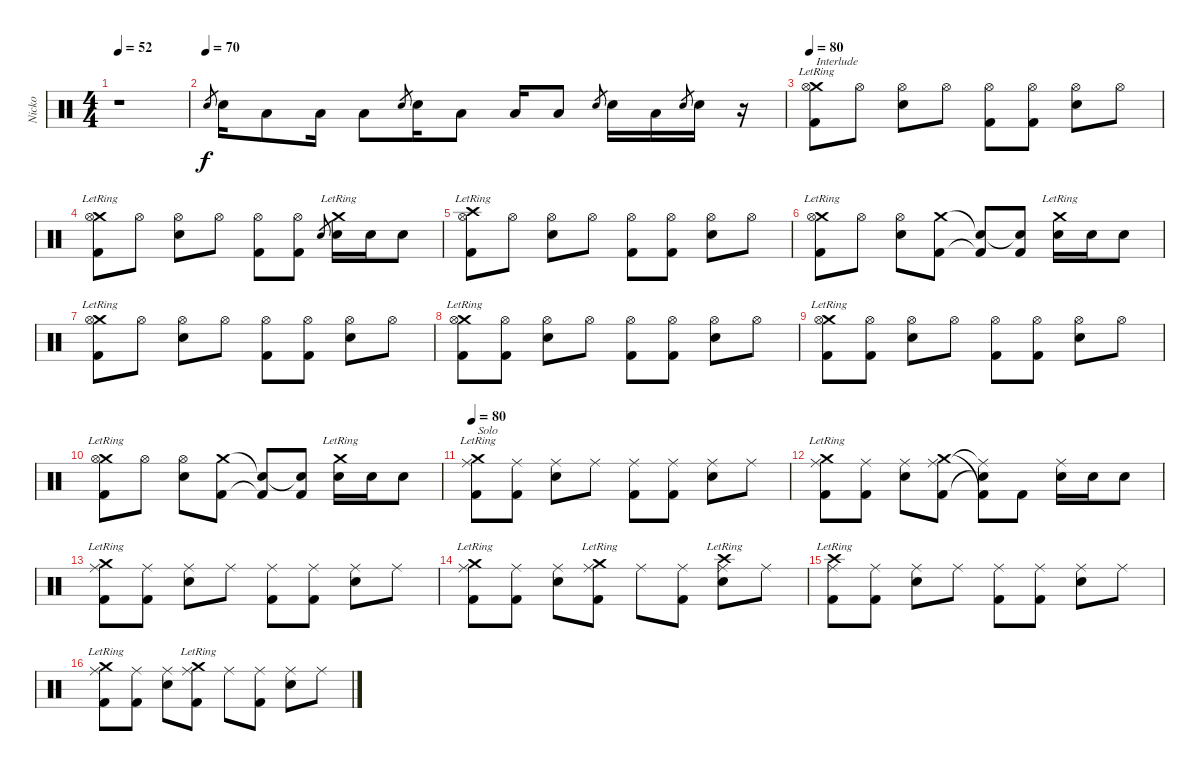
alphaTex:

\track ("Nicko" "Nicko") {instrument percussion}
\staff {score}
\articulation defaults
\ts (4 4)
\tempo 52
\clef neutral
\ks c
r.1{dy f} |
\tempo (70)
"Electric Snare (hit)".8{gr} "Electric Snare (hit)".16 "Low Floor Tom (hit)".8 "Low Floor Tom (hit)".16 "Low Floor Tom (hit)".8 "Electric Snare (hit)".8{gr} "Electric Snare (hit)".16 "Low Floor Tom (hit)".8 "Low Floor Tom (hit)".16 "Low Floor Tom (hit)".8 "Electric Snare (hit)".8{gr} "Electric Snare (hit)".16 "Low Floor Tom (hit)".16 "Electric Snare (hit)".8{gr} "Electric Snare (hit)".16 r.16 |
\tempo 78
\tempo 75
\tempo 80
("Crash medium (hit)"{lr} "Hi-Hat (open)" "Kick (hit) 2").8{txt "Interlude"} "Hi-Hat (open)".8 ("Electric Snare (hit)" "Hi-Hat (open)").8 "Hi-Hat (open)".8 ("Hi-Hat (open)" "Kick (hit) 2").8 ("Hi-Hat (open)" "Kick (hit) 2").8 ("Hi-Hat (open)" "Electric Snare (hit)").8 "Hi-Hat (open)".8 |
("Crash medium (hit)"{lr} "Hi-Hat (open)" "Kick (hit) 2").8 "Hi-Hat (open)".8 ("Electric Snare (hit)" "Hi-Hat (open)").8 "Hi-Hat (open)".8 ("Hi-Hat (open)" "Kick (hit) 2").8 ("Hi-Hat (open)" "Kick (hit) 2").8 "Electric Snare (hit)".8{gr} ("Crash medium (hit)"{lr} "Electric Snare (hit)").16 "Electric Snare (hit)".16 "Electric Snare (hit)".8 |
("Crash high (hit)"{lr} "Hi-Hat (open)" "Kick (hit) 2").8 "Hi-Hat (open)".8 ("Electric Snare (hit)" "Hi-Hat (open)").8 "Hi-Hat (open)".8 ("Hi-Hat (open)" "Kick (hit) 2").8 ("Hi-Hat (open)" "Kick (hit) 2").8 ("Hi-Hat (open)" "Electric Snare (hit)").8 "Hi-Hat (open)".8 |
("Crash medium (hit)"{lr} "Hi-Hat (open)" "Kick (hit) 2").8 "Hi-Hat (open)".8 ("Electric Snare (hit)" "Hi-Hat (open)").8 ("Crash medium (hit)" "Kick (hit) 2").8 ("Snare (hit)"{t} "Kick (hit) 2"{t}).8 ("Snare (hit)"{t} "Kick (hit) 2").8 ("Crash medium (hit)"{lr} "Electric Snare (hit)").16 "Electric Snare (hit)".16 "Electric Snare (hit)".8 |
("Crash medium (hit)"{lr} "Hi-Hat (open)" "Kick (hit) 2").8 "Hi-Hat (open)".8 ("Electric Snare (hit)" "Hi-Hat (open)").8 "Hi-Hat (open)".8 ("Hi-Hat (open)" "Kick (hit) 2").8 ("Hi-Hat (open)" "Kick (hit) 2").8 ("Hi-Hat (open)" "Electric Snare (hit)").8 "Hi-Hat (open)".8 |
("Crash medium (hit)"{lr} "Hi-Hat (open)" "Kick (hit) 2").8 ("Hi-Hat (open)" "Kick (hit) 2").8 ("Electric Snare (hit)" "Hi-Hat (open)").8 "Hi-Hat (open)".8 ("Hi-Hat (open)" "Kick (hit) 2").8 ("Hi-Hat (open)" "Kick (hit) 2").8 ("Hi-Hat (open)" "Electric Snare (hit)").8 "Hi-Hat (open)".8 |
("Crash medium (hit)"{lr} "Hi-Hat (open)" "Kick (hit) 2").8 ("Hi-Hat (open)" "Kick (hit) 2").8 ("Electric Snare (hit)" "Hi-Hat (open)").8 "Hi-Hat (open)".8 ("Hi-Hat (open)" "Kick (hit) 2").8 ("Hi-Hat (open)" "Kick (hit) 2").8 ("Hi-Hat (open)" "Electric Snare (hit)").8 "Hi-Hat (open)".8 |
("Crash medium (hit)"{lr} "Hi-Hat (open)" "Kick (hit) 2").8 "Hi-Hat (open)".8 ("Electric Snare (hit)" "Hi-Hat (open)").8 ("Crash medium (hit)" "Kick (hit) 2").8 ("Snare (hit)"{t} "Kick (hit) 2"{t}).8 ("Snare (hit)"{t} "Kick (hit) 2").8 ("Crash medium (hit)"{lr} "Electric Snare (hit)").16 "Electric Snare (hit)".16 "Electric Snare (hit)".8 |
\tempo 80
("Crash medium (hit)"{lr} "Ride (middle)" "Kick (hit) 2").8{txt "Solo"} ("Ride (middle)" "Kick (hit) 2").8 ("Electric Snare (hit)" "Ride (middle)").8 "Ride (middle)".8 ("Ride (middle)" "Kick (hit) 2").8 ("Ride (middle)" "Kick (hit) 2").8 ("Ride (middle)" "Electric Snare (hit)").8 "Ride (middle)".8 |
("Crash medium (hit)"{lr} "Ride (middle)" "Kick (hit) 2").8 ("Ride (middle)" "Kick (hit) 2").8 ("Electric Snare (hit)" "Ride (middle)").8 ("Ride (middle)" "Crash medium (hit)" "Kick (hit) 2").8 ("Ride (middle)"{t} "Kick (hit) 2"{t} "Snare (hit)"{t}).8 "Kick (hit) 2".8 ("Ride (middle)" "Electric Snare (hit)").16 "Electric Snare (hit)".16 "Electric Snare (hit)".8 |
("Crash medium (hit)"{lr} "Ride (middle)" "Kick (hit) 2").8 ("Ride (middle)" "Kick (hit) 2").8 ("Electric Snare (hit)" "Ride (middle)").8 "Ride (middle)".8 ("Ride (middle)" "Kick (hit) 2").8 ("Ride (middle)" "Kick (hit) 2").8 ("Ride (middle)" "Electric Snare (hit)").8 "Ride (middle)".8 |
("Crash medium (hit)"{lr} "Ride (middle)" "Kick (hit) 2").8 ("Ride (middle)" "Kick (hit) 2").8 ("Electric Snare (hit)" "Ride (middle)").8 ("Crash medium (hit)"{lr} "Ride (middle)" "Kick (hit) 2").8 "Ride (middle)".8 ("Ride (middle)" "Kick (hit) 2").8 ("Crash high (hit)"{lr} "Ride (middle)" "Electric Snare (hit)").8 "Ride (middle)".8 |
("Crash high (hit)"{lr} "Ride (middle)" "Kick (hit) 2").8 ("Ride (middle)" "Kick (hit) 2").8 ("Electric Snare (hit)" "Ride (middle)").8 "Ride (middle)".8 ("Ride (middle)" "Kick (hit) 2").8 ("Ride (middle)" "Kick (hit) 2").8 ("Ride (middle)" "Electric Snare (hit)").8 "Ride (middle)".8 |
("Crash medium (hit)"{lr} "Ride (middle)" "Kick (hit) 2").8 ("Ride (middle)" "Kick (hit) 2").8 ("Electric Snare (hit)" "Ride (middle)").8 ("Crash medium (hit)"{lr} "Ride (middle)" "Kick (hit) 2").8 "Ride (middle)".8 ("Ride (middle)" "Kick (hit) 2").8 ("Ride (middle)" "Electric Snare (hit)").8 "Ride (middle)".8
